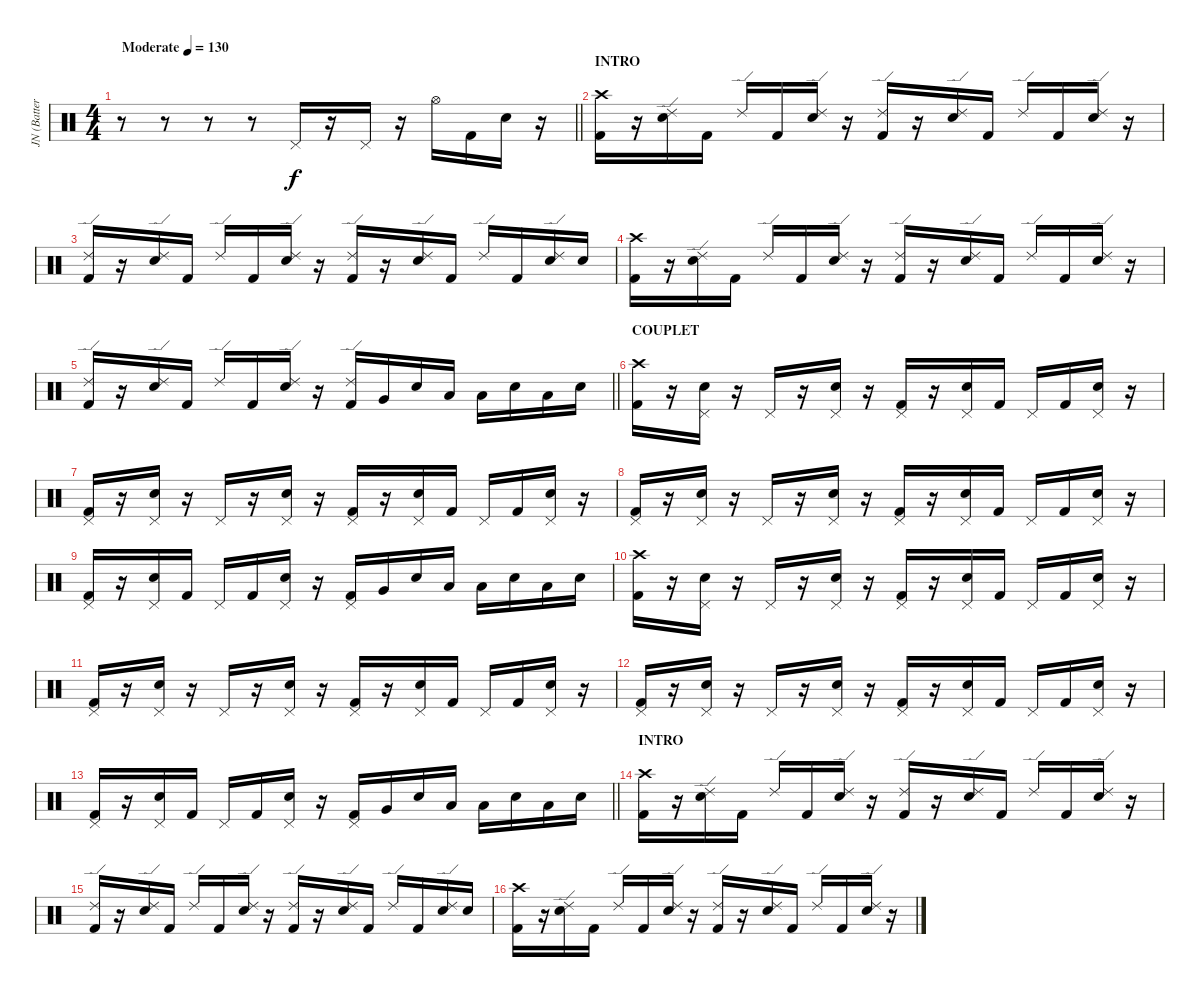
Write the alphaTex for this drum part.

\track ("JN (Batterie)" "JN (Batter") {instrument percussion}
\staff {score}
\articulation defaults
\ts (4 4)
\tempo (130 "Moderate")
\clef neutral
\barLineRight lightlight
\ks c
r.8{dy f} r.8 r.8 r.8 "Pedal Hi-Hat (hit)".16 r.16 "Pedal Hi-Hat (hit)".16 r.16 "Hi-Hat (open)".16 "Kick (hit) 2".16 "Electric Snare (hit)".16 r.16 |
\section ("" "INTRO")
("Crash high (hit)" "Kick (hit) 2").16 r.16 ("Ride (edge) 2" "Electric Snare (hit)").16 "Kick (hit) 2".16 "Ride (edge) 2".16 "Kick (hit) 2".16 ("Ride (edge) 2" "Electric Snare (hit)").16 r.16 ("Ride (edge) 2" "Kick (hit) 2").16 r.16 ("Ride (edge) 2" "Electric Snare (hit)").16 "Kick (hit) 2".16 "Ride (edge) 2".16 "Kick (hit) 2".16 ("Ride (edge) 2" "Electric Snare (hit)").16 r.16 |
("Ride (edge) 2" "Kick (hit) 2").16 r.16 ("Ride (edge) 2" "Electric Snare (hit)").16 "Kick (hit) 2".16 "Ride (edge) 2".16 "Kick (hit) 2".16 ("Ride (edge) 2" "Electric Snare (hit)").16 r.16 ("Ride (edge) 2" "Kick (hit) 2").16 r.16 ("Ride (edge) 2" "Electric Snare (hit)").16 "Kick (hit) 2".16 "Ride (edge) 2".16 "Kick (hit) 2".16 ("Ride (edge) 2" "Electric Snare (hit)").16 "Electric Snare (hit)".16 |
("Crash high (hit)" "Kick (hit) 2").16 r.16 ("Ride (edge) 2" "Electric Snare (hit)").16 "Kick (hit) 2".16 "Ride (edge) 2".16 "Kick (hit) 2".16 ("Ride (edge) 2" "Electric Snare (hit)").16 r.16 ("Ride (edge) 2" "Kick (hit) 2").16 r.16 ("Ride (edge) 2" "Electric Snare (hit)").16 "Kick (hit) 2".16 "Ride (edge) 2".16 "Kick (hit) 2".16 ("Ride (edge) 2" "Electric Snare (hit)").16 r.16 |
\barLineRight lightlight
("Ride (edge) 2" "Kick (hit) 2").16 r.16 ("Ride (edge) 2" "Electric Snare (hit)").16 "Kick (hit) 2".16 "Ride (edge) 2".16 "Kick (hit) 2".16 ("Ride (edge) 2" "Electric Snare (hit)").16 r.16 ("Ride (edge) 2" "Kick (hit) 2").16 "Very Low Tom (hit)".16 "Electric Snare (hit)".16 "Low Tom (hit)".16 "Low Tom (hit)".16 "Electric Snare (hit)".16 "Low Tom (hit)".16 "Electric Snare (hit)".16 |
\section ("" "COUPLET")
("Crash high (hit)" "Kick (hit) 2").16 r.16 ("Pedal Hi-Hat (hit)" "Electric Snare (hit)").16 r.16 "Pedal Hi-Hat (hit)".16 r.16 ("Pedal Hi-Hat (hit)" "Electric Snare (hit)").16 r.16 ("Pedal Hi-Hat (hit)" "Kick (hit) 2").16 r.16 ("Pedal Hi-Hat (hit)" "Electric Snare (hit)").16 "Kick (hit) 2".16 "Pedal Hi-Hat (hit)".16 "Kick (hit) 2".16 ("Pedal Hi-Hat (hit)" "Electric Snare (hit)").16 r.16 |
("Pedal Hi-Hat (hit)" "Kick (hit) 2").16 r.16 ("Pedal Hi-Hat (hit)" "Electric Snare (hit)").16 r.16 "Pedal Hi-Hat (hit)".16 r.16 ("Pedal Hi-Hat (hit)" "Electric Snare (hit)").16 r.16 ("Pedal Hi-Hat (hit)" "Kick (hit) 2").16 r.16 ("Pedal Hi-Hat (hit)" "Electric Snare (hit)").16 "Kick (hit) 2".16 "Pedal Hi-Hat (hit)".16 "Kick (hit) 2".16 ("Pedal Hi-Hat (hit)" "Electric Snare (hit)").16 r.16 |
("Pedal Hi-Hat (hit)" "Kick (hit) 2").16 r.16 ("Pedal Hi-Hat (hit)" "Electric Snare (hit)").16 r.16 "Pedal Hi-Hat (hit)".16 r.16 ("Pedal Hi-Hat (hit)" "Electric Snare (hit)").16 r.16 ("Pedal Hi-Hat (hit)" "Kick (hit) 2").16 r.16 ("Pedal Hi-Hat (hit)" "Electric Snare (hit)").16 "Kick (hit) 2".16 "Pedal Hi-Hat (hit)".16 "Kick (hit) 2".16 ("Pedal Hi-Hat (hit)" "Electric Snare (hit)").16 r.16 |
("Pedal Hi-Hat (hit)" "Kick (hit) 2").16 r.16 ("Pedal Hi-Hat (hit)" "Electric Snare (hit)").16 "Kick (hit) 2".16 "Pedal Hi-Hat (hit)".16 "Kick (hit) 2".16 ("Pedal Hi-Hat (hit)" "Electric Snare (hit)").16 r.16 ("Pedal Hi-Hat (hit)" "Kick (hit) 2").16 "Very Low Tom (hit)".16 "Electric Snare (hit)".16 "Low Tom (hit)".16 "Low Tom (hit)".16 "Electric Snare (hit)".16 "Low Tom (hit)".16 "Electric Snare (hit)".16 |
("Crash high (hit)" "Kick (hit) 2").16 r.16 ("Pedal Hi-Hat (hit)" "Electric Snare (hit)").16 r.16 "Pedal Hi-Hat (hit)".16 r.16 ("Pedal Hi-Hat (hit)" "Electric Snare (hit)").16 r.16 ("Pedal Hi-Hat (hit)" "Kick (hit) 2").16 r.16 ("Pedal Hi-Hat (hit)" "Electric Snare (hit)").16 "Kick (hit) 2".16 "Pedal Hi-Hat (hit)".16 "Kick (hit) 2".16 ("Pedal Hi-Hat (hit)" "Electric Snare (hit)").16 r.16 |
("Pedal Hi-Hat (hit)" "Kick (hit) 2").16 r.16 ("Pedal Hi-Hat (hit)" "Electric Snare (hit)").16 r.16 "Pedal Hi-Hat (hit)".16 r.16 ("Pedal Hi-Hat (hit)" "Electric Snare (hit)").16 r.16 ("Pedal Hi-Hat (hit)" "Kick (hit) 2").16 r.16 ("Pedal Hi-Hat (hit)" "Electric Snare (hit)").16 "Kick (hit) 2".16 "Pedal Hi-Hat (hit)".16 "Kick (hit) 2".16 ("Pedal Hi-Hat (hit)" "Electric Snare (hit)").16 r.16 |
("Pedal Hi-Hat (hit)" "Kick (hit) 2").16 r.16 ("Pedal Hi-Hat (hit)" "Electric Snare (hit)").16 r.16 "Pedal Hi-Hat (hit)".16 r.16 ("Pedal Hi-Hat (hit)" "Electric Snare (hit)").16 r.16 ("Pedal Hi-Hat (hit)" "Kick (hit) 2").16 r.16 ("Pedal Hi-Hat (hit)" "Electric Snare (hit)").16 "Kick (hit) 2".16 "Pedal Hi-Hat (hit)".16 "Kick (hit) 2".16 ("Pedal Hi-Hat (hit)" "Electric Snare (hit)").16 r.16 |
\barLineRight lightlight
("Pedal Hi-Hat (hit)" "Kick (hit) 2").16 r.16 ("Pedal Hi-Hat (hit)" "Electric Snare (hit)").16 "Kick (hit) 2".16 "Pedal Hi-Hat (hit)".16 "Kick (hit) 2".16 ("Pedal Hi-Hat (hit)" "Electric Snare (hit)").16 r.16 ("Pedal Hi-Hat (hit)" "Kick (hit) 2").16 "Very Low Tom (hit)".16 "Electric Snare (hit)".16 "Low Tom (hit)".16 "Low Tom (hit)".16 "Electric Snare (hit)".16 "Low Tom (hit)".16 "Electric Snare (hit)".16 |
\section ("" "INTRO")
("Crash high (hit)" "Kick (hit) 2").16 r.16 ("Ride (edge) 2" "Electric Snare (hit)").16 "Kick (hit) 2".16 "Ride (edge) 2".16 "Kick (hit) 2".16 ("Ride (edge) 2" "Electric Snare (hit)").16 r.16 ("Ride (edge) 2" "Kick (hit) 2").16 r.16 ("Ride (edge) 2" "Electric Snare (hit)").16 "Kick (hit) 2".16 "Ride (edge) 2".16 "Kick (hit) 2".16 ("Ride (edge) 2" "Electric Snare (hit)").16 r.16 |
("Ride (edge) 2" "Kick (hit) 2").16 r.16 ("Ride (edge) 2" "Electric Snare (hit)").16 "Kick (hit) 2".16 "Ride (edge) 2".16 "Kick (hit) 2".16 ("Ride (edge) 2" "Electric Snare (hit)").16 r.16 ("Ride (edge) 2" "Kick (hit) 2").16 r.16 ("Ride (edge) 2" "Electric Snare (hit)").16 "Kick (hit) 2".16 "Ride (edge) 2".16 "Kick (hit) 2".16 ("Ride (edge) 2" "Electric Snare (hit)").16 "Electric Snare (hit)".16 |
("Crash high (hit)" "Kick (hit) 2").16 r.16 ("Ride (edge) 2" "Electric Snare (hit)").16 "Kick (hit) 2".16 "Ride (edge) 2".16 "Kick (hit) 2".16 ("Ride (edge) 2" "Electric Snare (hit)").16 r.16 ("Ride (edge) 2" "Kick (hit) 2").16 r.16 ("Ride (edge) 2" "Electric Snare (hit)").16 "Kick (hit) 2".16 "Ride (edge) 2".16 "Kick (hit) 2".16 ("Ride (edge) 2" "Electric Snare (hit)").16 r.16
